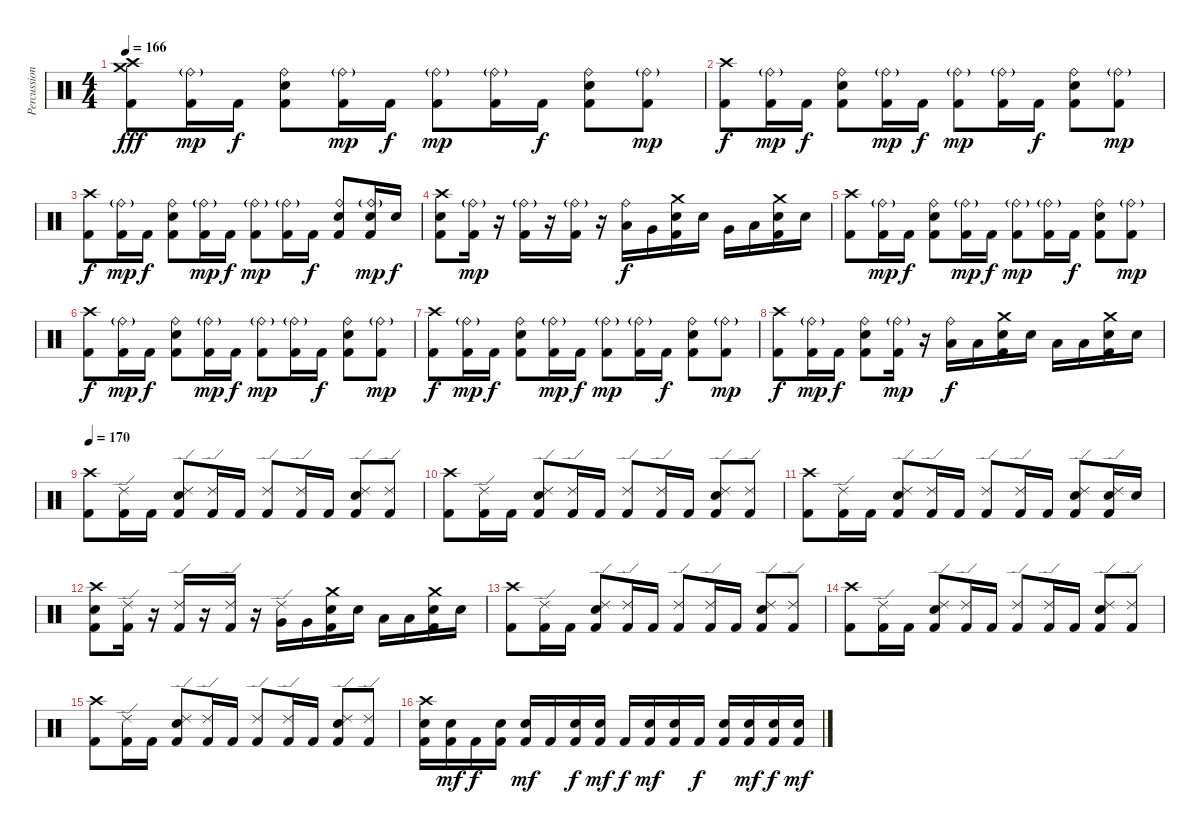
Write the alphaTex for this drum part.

\track ("Percussion" "Percussion") {instrument percussion}
\staff {score}
\articulation defaults
\ts (4 4)
\tempo 166
\clef neutral
\ks c
("Crash high (hit)" "Crash medium (hit)" "Kick (hit) 2").8{dy fff} ("Ride (bell)"{g} "Kick (hit) 2").16{dy mp} "Kick (hit) 2".16{dy f} ("Ride (bell)" "Electric Snare (hit)" "Kick (hit) 2").8 ("Ride (bell)"{g} "Kick (hit) 2").16{dy mp} "Kick (hit) 2".16{dy f} ("Ride (bell)"{g} "Kick (hit) 2").8{dy mp} ("Ride (bell)"{g} "Kick (hit) 2").16 "Kick (hit) 2".16{dy f} ("Ride (bell)" "Electric Snare (hit)" "Kick (hit) 2").8 ("Ride (bell)"{g} "Kick (hit) 2").8{dy mp} |
("Crash high (hit)" "Kick (hit) 2").8{dy f} ("Ride (bell)"{g} "Kick (hit) 2").16{dy mp} "Kick (hit) 2".16{dy f} ("Ride (bell)" "Electric Snare (hit)" "Kick (hit) 2").8 ("Ride (bell)"{g} "Kick (hit) 2").16{dy mp} "Kick (hit) 2".16{dy f} ("Ride (bell)"{g} "Kick (hit) 2").8{dy mp} ("Ride (bell)"{g} "Kick (hit) 2").16 "Kick (hit) 2".16{dy f} ("Ride (bell)" "Electric Snare (hit)" "Kick (hit) 2").8 ("Ride (bell)"{g} "Kick (hit) 2").8{dy mp} |
("Crash high (hit)" "Kick (hit) 2").8{dy f} ("Ride (bell)"{g} "Kick (hit) 2").16{dy mp} "Kick (hit) 2".16{dy f} ("Ride (bell)" "Electric Snare (hit)" "Kick (hit) 2").8 ("Ride (bell)"{g} "Kick (hit) 2").16{dy mp} "Kick (hit) 2".16{dy f} ("Ride (bell)"{g} "Kick (hit) 2").8{dy mp} ("Ride (bell)"{g} "Kick (hit) 2").16 "Kick (hit) 2".16{dy f} ("Ride (bell)" "Electric Snare (hit)" "Kick (hit) 2").8 ("Ride (bell)"{g} "Electric Snare (hit)" "Kick (hit) 2").16{dy mp} "Electric Snare (hit)".16{dy f} |
("Crash high (hit)" "Electric Snare (hit)" "Kick (hit) 2").8 ("Ride (bell)"{g} "Kick (hit) 2").16{dy mp} r.16 ("Ride (bell)"{g} "Kick (hit) 2").16 r.16 ("Ride (bell)"{g} "Kick (hit) 2").16 r.16 ("Ride (bell)" "Low Tom (hit)").16{dy f} "Very Low Tom (hit)".16 ("Crash medium (hit)" "Electric Snare (hit)" "Kick (hit) 2").16 "Electric Snare (hit)".16 "Very Low Tom (hit)".16 "Low Floor Tom (hit)".16 ("Crash medium (hit)" "Electric Snare (hit)" "Kick (hit) 2").16 "Electric Snare (hit)".16 |
("Crash high (hit)" "Kick (hit) 2").8 ("Ride (bell)"{g} "Kick (hit) 2").16{dy mp} "Kick (hit) 2".16{dy f} ("Ride (bell)" "Electric Snare (hit)" "Kick (hit) 2").8 ("Ride (bell)"{g} "Kick (hit) 2").16{dy mp} "Kick (hit) 2".16{dy f} ("Ride (bell)"{g} "Kick (hit) 2").8{dy mp} ("Ride (bell)"{g} "Kick (hit) 2").16 "Kick (hit) 2".16{dy f} ("Ride (bell)" "Electric Snare (hit)" "Kick (hit) 2").8 ("Ride (bell)"{g} "Kick (hit) 2").8{dy mp} |
("Crash high (hit)" "Kick (hit) 2").8{dy f} ("Ride (bell)"{g} "Kick (hit) 2").16{dy mp} "Kick (hit) 2".16{dy f} ("Ride (bell)" "Electric Snare (hit)" "Kick (hit) 2").8 ("Ride (bell)"{g} "Kick (hit) 2").16{dy mp} "Kick (hit) 2".16{dy f} ("Ride (bell)"{g} "Kick (hit) 2").8{dy mp} ("Ride (bell)"{g} "Kick (hit) 2").16 "Kick (hit) 2".16{dy f} ("Ride (bell)" "Electric Snare (hit)" "Kick (hit) 2").8 ("Ride (bell)"{g} "Kick (hit) 2").8{dy mp} |
("Crash high (hit)" "Kick (hit) 2").8{dy f} ("Ride (bell)"{g} "Kick (hit) 2").16{dy mp} "Kick (hit) 2".16{dy f} ("Ride (bell)" "Electric Snare (hit)" "Kick (hit) 2").8 ("Ride (bell)"{g} "Kick (hit) 2").16{dy mp} "Kick (hit) 2".16{dy f} ("Ride (bell)"{g} "Kick (hit) 2").8{dy mp} ("Ride (bell)"{g} "Kick (hit) 2").16 "Kick (hit) 2".16{dy f} ("Ride (bell)" "Electric Snare (hit)" "Kick (hit) 2").8 ("Ride (bell)"{g} "Kick (hit) 2").8{dy mp} |
("Crash high (hit)" "Kick (hit) 2").8{dy f} ("Ride (bell)"{g} "Kick (hit) 2").16{dy mp} "Kick (hit) 2".16{dy f} ("Ride (bell)" "Electric Snare (hit)" "Kick (hit) 2").8 ("Ride (bell)"{g} "Kick (hit) 2").16{dy mp} r.16 ("Ride (bell)" "Low Tom (hit)").16{dy f} "Low Tom (hit)".16 ("Crash medium (hit)" "Electric Snare (hit)" "Kick (hit) 2").16 "Electric Snare (hit)".16 "Low Floor Tom (hit)".16 "Low Floor Tom (hit)".16 ("Crash medium (hit)" "Electric Snare (hit)" "Kick (hit) 2").16 "Electric Snare (hit)".16 |
\tempo 170
("Crash high (hit)" "Kick (hit) 2").8 ("Ride (edge) 2" "Kick (hit) 2").16 "Kick (hit) 2".16 ("Ride (edge) 2" "Electric Snare (hit)" "Kick (hit) 2").8 ("Ride (edge) 2" "Kick (hit) 2").16 "Kick (hit) 2".16 ("Ride (edge) 2" "Kick (hit) 2").8 ("Ride (edge) 2" "Kick (hit) 2").16 "Kick (hit) 2".16 ("Ride (edge) 2" "Electric Snare (hit)" "Kick (hit) 2").8 ("Ride (edge) 2" "Kick (hit) 2").8 |
("Crash high (hit)" "Kick (hit) 2").8 ("Ride (edge) 2" "Kick (hit) 2").16 "Kick (hit) 2".16 ("Ride (edge) 2" "Electric Snare (hit)" "Kick (hit) 2").8 ("Ride (edge) 2" "Kick (hit) 2").16 "Kick (hit) 2".16 ("Ride (edge) 2" "Kick (hit) 2").8 ("Ride (edge) 2" "Kick (hit) 2").16 "Kick (hit) 2".16 ("Ride (edge) 2" "Electric Snare (hit)" "Kick (hit) 2").8 ("Ride (edge) 2" "Kick (hit) 2").8 |
("Crash high (hit)" "Kick (hit) 2").8 ("Ride (edge) 2" "Kick (hit) 2").16 "Kick (hit) 2".16 ("Ride (edge) 2" "Electric Snare (hit)" "Kick (hit) 2").8 ("Ride (edge) 2" "Kick (hit) 2").16 "Kick (hit) 2".16 ("Ride (edge) 2" "Kick (hit) 2").8 ("Ride (edge) 2" "Kick (hit) 2").16 "Kick (hit) 2".16 ("Ride (edge) 2" "Electric Snare (hit)" "Kick (hit) 2").8 ("Ride (edge) 2" "Electric Snare (hit)" "Kick (hit) 2").16 "Electric Snare (hit)".16 |
("Crash high (hit)" "Electric Snare (hit)" "Kick (hit) 2").8 ("Ride (edge) 2" "Kick (hit) 2").16 r.16 ("Ride (edge) 2" "Kick (hit) 2").16 r.16 ("Ride (edge) 2" "Kick (hit) 2").16 r.16 ("Ride (edge) 2" "Very Low Tom (hit)").16 "Very Low Tom (hit)".16 ("Crash medium (hit)" "Electric Snare (hit)" "Kick (hit) 2").16 "Electric Snare (hit)".16 "Low Floor Tom (hit)".16 "Low Floor Tom (hit)".16 ("Crash medium (hit)" "Electric Snare (hit)" "Kick (hit) 2").16 "Electric Snare (hit)".16 |
("Crash high (hit)" "Kick (hit) 2").8 ("Ride (edge) 2" "Kick (hit) 2").16 "Kick (hit) 2".16 ("Ride (edge) 2" "Electric Snare (hit)" "Kick (hit) 2").8 ("Ride (edge) 2" "Kick (hit) 2").16 "Kick (hit) 2".16 ("Ride (edge) 2" "Kick (hit) 2").8 ("Ride (edge) 2" "Kick (hit) 2").16 "Kick (hit) 2".16 ("Ride (edge) 2" "Electric Snare (hit)" "Kick (hit) 2").8 ("Ride (edge) 2" "Kick (hit) 2").8 |
("Crash high (hit)" "Kick (hit) 2").8 ("Ride (edge) 2" "Kick (hit) 2").16 "Kick (hit) 2".16 ("Ride (edge) 2" "Electric Snare (hit)" "Kick (hit) 2").8 ("Ride (edge) 2" "Kick (hit) 2").16 "Kick (hit) 2".16 ("Ride (edge) 2" "Kick (hit) 2").8 ("Ride (edge) 2" "Kick (hit) 2").16 "Kick (hit) 2".16 ("Ride (edge) 2" "Electric Snare (hit)" "Kick (hit) 2").8 ("Ride (edge) 2" "Kick (hit) 2").8 |
("Crash high (hit)" "Kick (hit) 2").8 ("Ride (edge) 2" "Kick (hit) 2").16 "Kick (hit) 2".16 ("Ride (edge) 2" "Electric Snare (hit)" "Kick (hit) 2").8 ("Ride (edge) 2" "Kick (hit) 2").16 "Kick (hit) 2".16 ("Ride (edge) 2" "Kick (hit) 2").8 ("Ride (edge) 2" "Kick (hit) 2").16 "Kick (hit) 2".16 ("Ride (edge) 2" "Electric Snare (hit)" "Kick (hit) 2").8 ("Ride (edge) 2" "Kick (hit) 2").8 |
("Crash high (hit)" "Electric Snare (hit)" "Kick (hit) 2").16 ("Electric Snare (hit)" "Kick (hit) 2").16{dy mf} "Kick (hit) 2".16{dy f} ("Electric Snare (hit)" "Kick (hit) 2").16 ("Electric Snare (hit)" "Kick (hit) 2").16{dy mf} "Kick (hit) 2".16 ("Electric Snare (hit)" "Kick (hit) 2").16{dy f} ("Electric Snare (hit)" "Kick (hit) 2").16{dy mf} "Kick (hit) 2".16{dy f} ("Electric Snare (hit)" "Kick (hit) 2").16{dy mf} ("Electric Snare (hit)" "Kick (hit) 2").16 "Kick (hit) 2".16{dy f} ("Electric Snare (hit)" "Kick (hit) 2").16 ("Electric Snare (hit)" "Kick (hit) 2").16{dy mf} ("Electric Snare (hit)" "Kick (hit) 2").16{dy f} ("Electric Snare (hit)" "Kick (hit) 2").16{dy mf}
